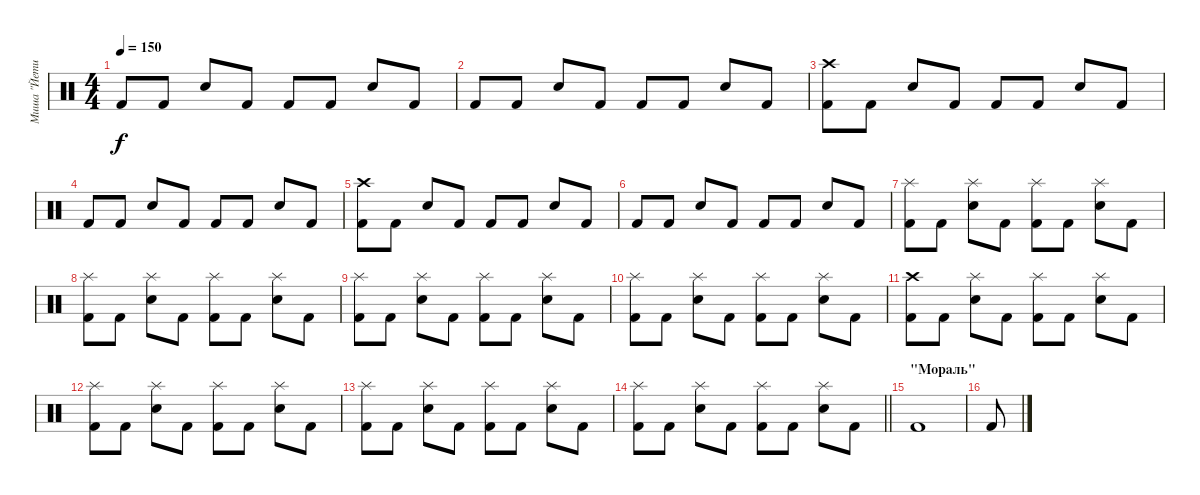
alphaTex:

\track ("Миша \"Йети\" Евсеев" "Миша \"Йети") {instrument percussion}
\staff {score}
\articulation defaults
\ts (4 4)
\tempo 150
\clef neutral
\ks c "Kick (hit) 2".8{dy f} "Kick (hit) 2".8 "Snare (hit) 2".8 "Kick (hit) 2".8 "Kick (hit) 2".8 "Kick (hit) 2".8 "Snare (hit) 2".8 "Kick (hit) 2".8
|
"Kick (hit) 2".8 "Kick (hit) 2".8 "Snare (hit) 2".8 "Kick (hit) 2".8 "Kick (hit) 2".8 "Kick (hit) 2".8 "Snare (hit) 2".8 "Kick (hit) 2".8 |
("Kick (hit) 2" "Crash high (hit)").8 "Kick (hit) 2".8 "Snare (hit) 2".8 "Kick (hit) 2".8 "Kick (hit) 2".8 "Kick (hit) 2".8 "Snare (hit) 2".8 "Kick (hit) 2".8 |
"Kick (hit) 2".8 "Kick (hit) 2".8 "Snare (hit) 2".8 "Kick (hit) 2".8 "Kick (hit) 2".8 "Kick (hit) 2".8 "Snare (hit) 2".8 "Kick (hit) 2".8 |
("Kick (hit) 2" "Crash high (hit)").8 "Kick (hit) 2".8 "Snare (hit) 2".8 "Kick (hit) 2".8 "Kick (hit) 2".8 "Kick (hit) 2".8 "Snare (hit) 2".8 "Kick (hit) 2".8 |
"Kick (hit) 2".8 "Kick (hit) 2".8 "Snare (hit) 2".8 "Kick (hit) 2".8 "Kick (hit) 2".8 "Kick (hit) 2".8 "Snare (hit) 2".8 "Kick (hit) 2".8 |
("Kick (hit) 2" "Splash (hit)").8 "Kick (hit) 2".8 ("Snare (hit) 2" "Splash (hit)").8 "Kick (hit) 2".8 ("Kick (hit) 2" "Splash (hit)").8 "Kick (hit) 2".8 ("Snare (hit) 2" "Splash (hit)").8 "Kick (hit) 2".8 |
("Kick (hit) 2" "Splash (hit)").8 "Kick (hit) 2".8 ("Snare (hit) 2" "Splash (hit)").8 "Kick (hit) 2".8 ("Kick (hit) 2" "Splash (hit)").8 "Kick (hit) 2".8 ("Snare (hit) 2" "Splash (hit)").8 "Kick (hit) 2".8 |
("Kick (hit) 2" "Splash (hit)").8 "Kick (hit) 2".8 ("Snare (hit) 2" "Splash (hit)").8 "Kick (hit) 2".8 ("Kick (hit) 2" "Splash (hit)").8 "Kick (hit) 2".8 ("Snare (hit) 2" "Splash (hit)").8 "Kick (hit) 2".8 |
("Kick (hit) 2" "Splash (hit)").8 "Kick (hit) 2".8 ("Snare (hit) 2" "Splash (hit)").8 "Kick (hit) 2".8 ("Kick (hit) 2" "Splash (hit)").8 "Kick (hit) 2".8 ("Snare (hit) 2" "Splash (hit)").8 "Kick (hit) 2".8 |
("Kick (hit) 2" "Crash high (hit)").8 "Kick (hit) 2".8 ("Snare (hit) 2" "Splash (hit)").8 "Kick (hit) 2".8 ("Kick (hit) 2" "Splash (hit)").8 "Kick (hit) 2".8 ("Snare (hit) 2" "Splash (hit)").8 "Kick (hit) 2".8 |
("Kick (hit) 2" "Splash (hit)").8 "Kick (hit) 2".8 ("Snare (hit) 2" "Splash (hit)").8 "Kick (hit) 2".8 ("Kick (hit) 2" "Splash (hit)").8 "Kick (hit) 2".8 ("Snare (hit) 2" "Splash (hit)").8 "Kick (hit) 2".8 |
("Kick (hit) 2" "Splash (hit)").8 "Kick (hit) 2".8 ("Snare (hit) 2" "Splash (hit)").8 "Kick (hit) 2".8 ("Kick (hit) 2" "Splash (hit)").8 "Kick (hit) 2".8 ("Snare (hit) 2" "Splash (hit)").8 "Kick (hit) 2".8 |
\barLineRight lightlight
("Kick (hit) 2" "Splash (hit)").8 "Kick (hit) 2".8 ("Snare (hit) 2" "Splash (hit)").8 "Kick (hit) 2".8 ("Kick (hit) 2" "Splash (hit)").8 "Kick (hit) 2".8 ("Snare (hit) 2" "Splash (hit)").8 "Kick (hit) 2".8 |
\section ("" "\"Мораль\"")
"Kick (hit) 2".1 |
"Kick (hit) 2".8
